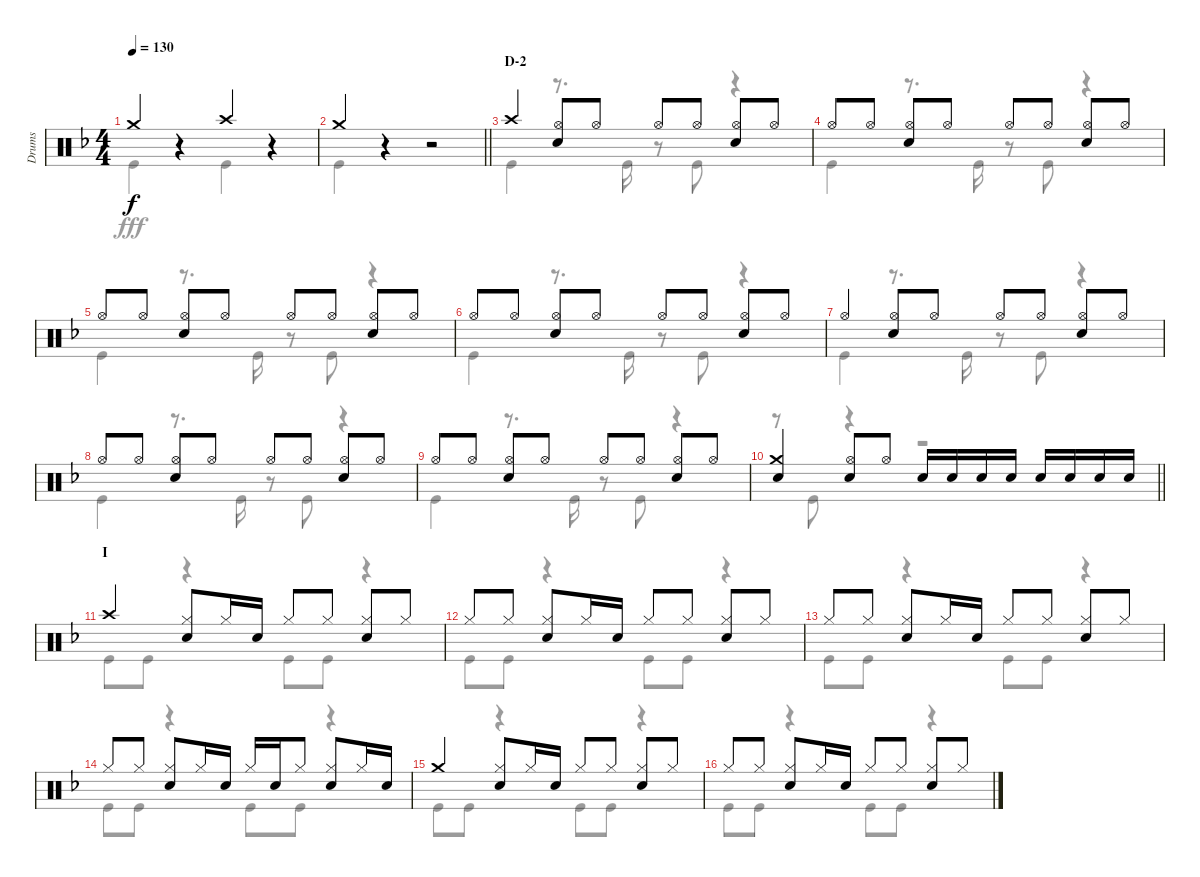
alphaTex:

\track ("Drums" "Drums") {instrument percussion}
\staff {score}
\articulation defaults
\voice
\ts (4 4)
\tempo 130
\clef neutral
\ks f "Crash medium (hit)".4{dy f}
r.4 "Crash high (hit)".4 r.4 |
\barLineRight lightlight "Crash medium (hit)".4
r.4 r.2 |
\section ("" "D-2")
"Crash high (hit)".4 ("Hi-Hat (open)" "Snare (hit) 2").8 "Hi-Hat (open)".8 "Hi-Hat (open)".8 "Hi-Hat (open)".8 ("Hi-Hat (open)" "Snare (hit) 2").8 "Hi-Hat (open)".8 |
"Hi-Hat (open)".8 "Hi-Hat (open)".8 ("Hi-Hat (open)" "Snare (hit) 2").8 "Hi-Hat (open)".8 "Hi-Hat (open)".8 "Hi-Hat (open)".8 ("Hi-Hat (open)" "Snare (hit) 2").8 "Hi-Hat (open)".8 |
"Hi-Hat (open)".8 "Hi-Hat (open)".8 ("Hi-Hat (open)" "Snare (hit) 2").8 "Hi-Hat (open)".8 "Hi-Hat (open)".8 "Hi-Hat (open)".8 ("Hi-Hat (open)" "Snare (hit) 2").8 "Hi-Hat (open)".8 |
"Hi-Hat (open)".8 "Hi-Hat (open)".8 ("Hi-Hat (open)" "Snare (hit) 2").8 "Hi-Hat (open)".8 "Hi-Hat (open)".8 "Hi-Hat (open)".8 ("Hi-Hat (open)" "Snare (hit) 2").8 "Hi-Hat (open)".8 |
"Hi-Hat (open)".4 ("Hi-Hat (open)" "Snare (hit) 2").8 "Hi-Hat (open)".8 "Hi-Hat (open)".8 "Hi-Hat (open)".8 ("Hi-Hat (open)" "Snare (hit) 2").8 "Hi-Hat (open)".8 |
"Hi-Hat (open)".8 "Hi-Hat (open)".8 ("Hi-Hat (open)" "Snare (hit) 2").8 "Hi-Hat (open)".8 "Hi-Hat (open)".8 "Hi-Hat (open)".8 ("Hi-Hat (open)" "Snare (hit) 2").8 "Hi-Hat (open)".8 |
"Hi-Hat (open)".8 "Hi-Hat (open)".8 ("Hi-Hat (open)" "Snare (hit) 2").8 "Hi-Hat (open)".8 "Hi-Hat (open)".8 "Hi-Hat (open)".8 ("Hi-Hat (open)" "Snare (hit) 2").8 "Hi-Hat (open)".8 |
\barLineRight lightlight
("Crash medium (hit)" "Snare (hit) 2").4 ("Hi-Hat (open)" "Snare (hit) 2").8 "Hi-Hat (open)".8 "Snare (hit) 2".16 "Snare (hit) 2".16 "Snare (hit) 2".16 "Snare (hit) 2".16 "Snare (hit) 2".16 "Snare (hit) 2".16 "Snare (hit) 2".16 "Snare (hit) 2".16 |
\section ("" "I")
"Crash high (hit)".4 ("Hi-Hat (closed)" "Snare (hit) 2").8 "Hi-Hat (closed)".16 "Snare (hit) 2".16 "Hi-Hat (closed)".8 "Hi-Hat (closed)".8 ("Hi-Hat (closed)" "Snare (hit) 2").8 "Hi-Hat (closed)".8 |
"Hi-Hat (closed)".8 "Hi-Hat (closed)".8 ("Hi-Hat (closed)" "Snare (hit) 2").8 "Hi-Hat (closed)".16 "Snare (hit) 2".16 "Hi-Hat (closed)".8 "Hi-Hat (closed)".8 ("Hi-Hat (closed)" "Snare (hit) 2").8 "Hi-Hat (closed)".8 |
"Hi-Hat (closed)".8 "Hi-Hat (closed)".8 ("Hi-Hat (closed)" "Snare (hit) 2").8 "Hi-Hat (closed)".16 "Snare (hit) 2".16 "Hi-Hat (closed)".8 "Hi-Hat (closed)".8 ("Hi-Hat (closed)" "Snare (hit) 2").8 "Hi-Hat (closed)".8 |
"Hi-Hat (closed)".8 "Hi-Hat (closed)".8 ("Hi-Hat (closed)" "Snare (hit) 2").8 "Hi-Hat (closed)".16 "Snare (hit) 2".16 "Hi-Hat (closed)".16 "Snare (hit) 2".16 "Hi-Hat (closed)".8 ("Hi-Hat (closed)" "Snare (hit) 2").8 "Hi-Hat (closed)".16 "Snare (hit) 2".16 |
"Crash medium (hit)".4 ("Hi-Hat (closed)" "Snare (hit) 2").8 "Hi-Hat (closed)".16 "Snare (hit) 2".16 "Hi-Hat (closed)".8 "Hi-Hat (closed)".8 ("Hi-Hat (closed)" "Snare (hit) 2").8 "Hi-Hat (closed)".8 |
"Hi-Hat (closed)".8 "Hi-Hat (closed)".8 ("Hi-Hat (closed)" "Snare (hit) 2").8 "Hi-Hat (closed)".16 "Snare (hit) 2".16 "Hi-Hat (closed)".8 "Hi-Hat (closed)".8 ("Hi-Hat (closed)" "Snare (hit) 2").8 "Hi-Hat (closed)".8
\voice
\clef neutral
\ottava regular
\simile none
\ks f "Kick (hit)".4{dy fff}
r.4 "Kick (hit)".4 r.4 |
\barLineRight lightlight "Kick (hit)".4
r.4 r.2 |
"Kick (hit)".4 r.8{d} "Kick (hit)".16 r.8 "Kick (hit)".8 r.4 |
"Kick (hit)".4 r.8{d} "Kick (hit)".16 r.8 "Kick (hit)".8 r.4 |
"Kick (hit)".4 r.8{d} "Kick (hit)".16 r.8 "Kick (hit)".8 r.4 |
"Kick (hit)".4 r.8{d} "Kick (hit)".16 r.8 "Kick (hit)".8 r.4 |
"Kick (hit)".4 r.8{d} "Kick (hit)".16 r.8 "Kick (hit)".8 r.4 |
"Kick (hit)".4 r.8{d} "Kick (hit)".16 r.8 "Kick (hit)".8 r.4 |
"Kick (hit)".4 r.8{d} "Kick (hit)".16 r.8 "Kick (hit)".8 r.4 |
\barLineRight lightlight
r.8 "Kick (hit)".8 r.4 r.2 |
"Kick (hit)".8 "Kick (hit)".8 r.4 "Kick (hit)".8 "Kick (hit)".8 r.4 |
"Kick (hit)".8 "Kick (hit)".8 r.4 "Kick (hit)".8 "Kick (hit)".8 r.4 |
"Kick (hit)".8 "Kick (hit)".8 r.4 "Kick (hit)".8 "Kick (hit)".8 r.4 |
"Kick (hit)".8 "Kick (hit)".8 r.4 "Kick (hit)".8 "Kick (hit)".8 r.4 |
"Kick (hit)".8 "Kick (hit)".8 r.4 "Kick (hit)".8 "Kick (hit)".8 r.4 |
"Kick (hit)".8 "Kick (hit)".8 r.4 "Kick (hit)".8 "Kick (hit)".8 r.4
